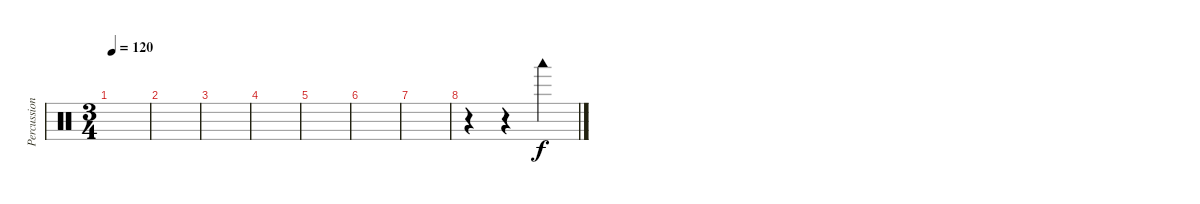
\track ("Percussion" "Percussion") {instrument percussion}
\staff {score}
\articulation defaults
\ts (3 4)
\tempo 120
\clef neutral
\ks c
|
|
|
|
|
|
|
r.4 r.4 "Woodblock low (hit)".4
